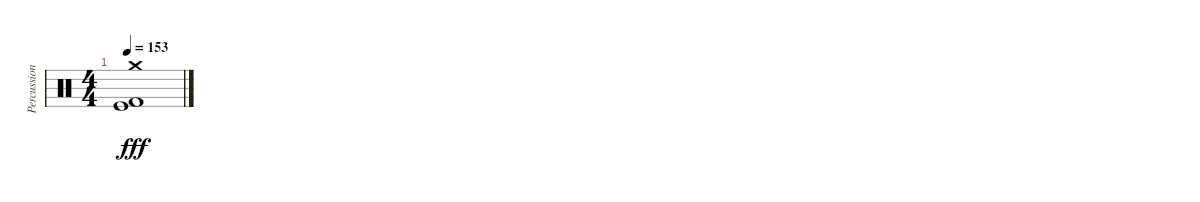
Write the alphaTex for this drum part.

\track ("Percussion" "Percussion") {instrument percussion}
\staff {score}
\articulation defaults
\ts (4 4)
\tempo 153
\clef neutral
\ks c
("Crash medium (hit)" "Kick (hit)" "Kick (hit) 2").1{dy fff}
